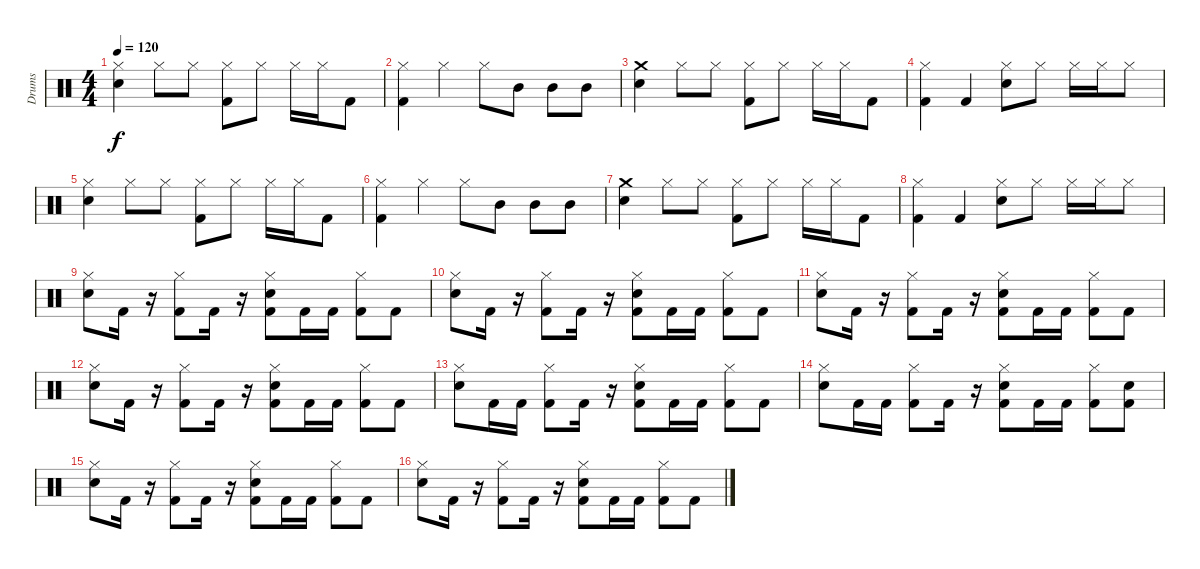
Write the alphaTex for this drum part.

\track ("Drums" "Drums") {instrument percussion}
\staff {score}
\articulation defaults
\ts (4 4)
\tempo 120
\clef neutral
\ks c
("Hi-Hat (closed)" "Snare (hit) 2").4{dy f} "Hi-Hat (closed)".8 "Hi-Hat (closed)".8 ("Hi-Hat (closed)" "Kick (hit) 2").8 "Hi-Hat (closed)".8 "Hi-Hat (closed)".16 "Hi-Hat (closed)".16 "Kick (hit) 2".8 |
("Hi-Hat (closed)" "Kick (hit) 2").4 "Hi-Hat (closed)".4 "Hi-Hat (closed)".8 "Mid Tom (hit)".8 "Mid Tom (hit)".8 "Mid Tom (hit)".8 |
("Crash medium (hit)" "Snare (hit) 2").4 "Hi-Hat (closed)".8 "Hi-Hat (closed)".8 ("Hi-Hat (closed)" "Kick (hit) 2").8 "Hi-Hat (closed)".8 "Hi-Hat (closed)".16 "Hi-Hat (closed)".16 "Kick (hit) 2".8 |
("Hi-Hat (closed)" "Kick (hit) 2").4 "Kick (hit) 2".4 ("Hi-Hat (closed)" "Snare (hit) 2").8 "Hi-Hat (closed)".8 "Hi-Hat (closed)".16 "Hi-Hat (closed)".16 "Hi-Hat (closed)".8 |
("Hi-Hat (closed)" "Snare (hit) 2").4 "Hi-Hat (closed)".8 "Hi-Hat (closed)".8 ("Hi-Hat (closed)" "Kick (hit) 2").8 "Hi-Hat (closed)".8 "Hi-Hat (closed)".16 "Hi-Hat (closed)".16 "Kick (hit) 2".8 |
("Hi-Hat (closed)" "Kick (hit) 2").4 "Hi-Hat (closed)".4 "Hi-Hat (closed)".8 "Mid Tom (hit)".8 "Mid Tom (hit)".8 "Mid Tom (hit)".8 |
("Crash medium (hit)" "Snare (hit) 2").4 "Hi-Hat (closed)".8 "Hi-Hat (closed)".8 ("Hi-Hat (closed)" "Kick (hit) 2").8 "Hi-Hat (closed)".8 "Hi-Hat (closed)".16 "Hi-Hat (closed)".16 "Kick (hit) 2".8 |
("Hi-Hat (closed)" "Kick (hit) 2").4 "Kick (hit) 2".4 ("Hi-Hat (closed)" "Snare (hit) 2").8 "Hi-Hat (closed)".8 "Hi-Hat (closed)".16 "Hi-Hat (closed)".16 "Hi-Hat (closed)".8 |
("Hi-Hat (closed)" "Snare (hit) 2").8 "Kick (hit) 2".16 r.16 ("Hi-Hat (closed)" "Kick (hit) 2").8 "Kick (hit) 2".16 r.16 ("Hi-Hat (closed)" "Snare (hit) 2" "Kick (hit) 2").8 "Kick (hit) 2".16 "Kick (hit) 2".16 ("Hi-Hat (closed)" "Kick (hit) 2").8 "Kick (hit) 2".8 |
("Hi-Hat (closed)" "Snare (hit) 2").8 "Kick (hit) 2".16 r.16 ("Hi-Hat (closed)" "Kick (hit) 2").8 "Kick (hit) 2".16 r.16 ("Hi-Hat (closed)" "Snare (hit) 2" "Kick (hit) 2").8 "Kick (hit) 2".16 "Kick (hit) 2".16 ("Hi-Hat (closed)" "Kick (hit) 2").8 "Kick (hit) 2".8 |
("Hi-Hat (closed)" "Snare (hit) 2").8 "Kick (hit) 2".16 r.16 ("Hi-Hat (closed)" "Kick (hit) 2").8 "Kick (hit) 2".16 r.16 ("Hi-Hat (closed)" "Snare (hit) 2" "Kick (hit) 2").8 "Kick (hit) 2".16 "Kick (hit) 2".16 ("Hi-Hat (closed)" "Kick (hit) 2").8 "Kick (hit) 2".8 |
("Hi-Hat (closed)" "Snare (hit) 2").8 "Kick (hit) 2".16 r.16 ("Hi-Hat (closed)" "Kick (hit) 2").8 "Kick (hit) 2".16 r.16 ("Hi-Hat (closed)" "Snare (hit) 2" "Kick (hit) 2").8 "Kick (hit) 2".16 "Kick (hit) 2".16 ("Hi-Hat (closed)" "Kick (hit) 2").8 "Kick (hit) 2".8 |
("Hi-Hat (closed)" "Snare (hit) 2").8 "Kick (hit) 2".16 "Kick (hit) 2".16 ("Hi-Hat (closed)" "Kick (hit) 2").8 "Kick (hit) 2".16 r.16 ("Hi-Hat (closed)" "Snare (hit) 2" "Kick (hit) 2").8 "Kick (hit) 2".16 "Kick (hit) 2".16 ("Hi-Hat (closed)" "Kick (hit) 2").8 "Kick (hit) 2".8 |
("Hi-Hat (closed)" "Snare (hit) 2").8 "Kick (hit) 2".16 "Kick (hit) 2".16 ("Hi-Hat (closed)" "Kick (hit) 2").8 "Kick (hit) 2".16 r.16 ("Hi-Hat (closed)" "Snare (hit) 2" "Kick (hit) 2").8 "Kick (hit) 2".16 "Kick (hit) 2".16 ("Hi-Hat (closed)" "Kick (hit) 2").8 ("Snare (hit) 2" "Kick (hit) 2").8 |
("Hi-Hat (closed)" "Snare (hit) 2").8 "Kick (hit) 2".16 r.16 ("Hi-Hat (closed)" "Kick (hit) 2").8 "Kick (hit) 2".16 r.16 ("Hi-Hat (closed)" "Snare (hit) 2" "Kick (hit) 2").8 "Kick (hit) 2".16 "Kick (hit) 2".16 ("Hi-Hat (closed)" "Kick (hit) 2").8 "Kick (hit) 2".8 |
("Hi-Hat (closed)" "Snare (hit) 2").8 "Kick (hit) 2".16 r.16 ("Hi-Hat (closed)" "Kick (hit) 2").8 "Kick (hit) 2".16 r.16 ("Hi-Hat (closed)" "Snare (hit) 2" "Kick (hit) 2").8 "Kick (hit) 2".16 "Kick (hit) 2".16 ("Hi-Hat (closed)" "Kick (hit) 2").8 "Kick (hit) 2".8
